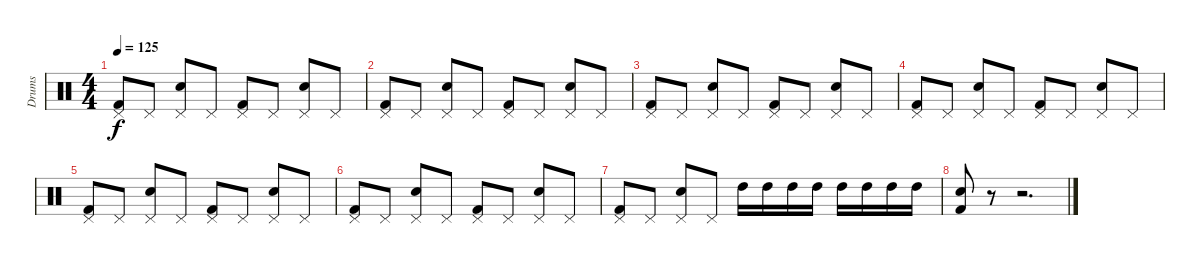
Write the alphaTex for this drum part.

\track ("Drums" "Drums") {instrument percussion}
\staff {score}
\articulation defaults
\ts (4 4)
\tempo 125
\clef neutral
\ks c
("Pedal Hi-Hat (hit)" "Kick (hit) 2").8{dy f} "Pedal Hi-Hat (hit)".8 ("Pedal Hi-Hat (hit)" "Electric Snare (hit)").8 "Pedal Hi-Hat (hit)".8 ("Pedal Hi-Hat (hit)" "Kick (hit) 2").8 "Pedal Hi-Hat (hit)".8 ("Pedal Hi-Hat (hit)" "Electric Snare (hit)").8 "Pedal Hi-Hat (hit)".8 |
("Pedal Hi-Hat (hit)" "Kick (hit) 2").8 "Pedal Hi-Hat (hit)".8 ("Pedal Hi-Hat (hit)" "Electric Snare (hit)").8 "Pedal Hi-Hat (hit)".8 ("Pedal Hi-Hat (hit)" "Kick (hit) 2").8 "Pedal Hi-Hat (hit)".8 ("Pedal Hi-Hat (hit)" "Electric Snare (hit)").8 "Pedal Hi-Hat (hit)".8 |
("Pedal Hi-Hat (hit)" "Kick (hit) 2").8 "Pedal Hi-Hat (hit)".8 ("Pedal Hi-Hat (hit)" "Electric Snare (hit)").8 "Pedal Hi-Hat (hit)".8 ("Pedal Hi-Hat (hit)" "Kick (hit) 2").8 "Pedal Hi-Hat (hit)".8 ("Pedal Hi-Hat (hit)" "Electric Snare (hit)").8 "Pedal Hi-Hat (hit)".8 |
("Pedal Hi-Hat (hit)" "Kick (hit) 2").8 "Pedal Hi-Hat (hit)".8 ("Pedal Hi-Hat (hit)" "Electric Snare (hit)").8 "Pedal Hi-Hat (hit)".8 ("Pedal Hi-Hat (hit)" "Kick (hit) 2").8 "Pedal Hi-Hat (hit)".8 ("Pedal Hi-Hat (hit)" "Electric Snare (hit)").8 "Pedal Hi-Hat (hit)".8 |
("Pedal Hi-Hat (hit)" "Kick (hit) 2").8 "Pedal Hi-Hat (hit)".8 ("Pedal Hi-Hat (hit)" "Electric Snare (hit)").8 "Pedal Hi-Hat (hit)".8 ("Pedal Hi-Hat (hit)" "Kick (hit) 2").8 "Pedal Hi-Hat (hit)".8 ("Pedal Hi-Hat (hit)" "Electric Snare (hit)").8 "Pedal Hi-Hat (hit)".8 |
("Pedal Hi-Hat (hit)" "Kick (hit) 2").8 "Pedal Hi-Hat (hit)".8 ("Pedal Hi-Hat (hit)" "Electric Snare (hit)").8 "Pedal Hi-Hat (hit)".8 ("Pedal Hi-Hat (hit)" "Kick (hit) 2").8 "Pedal Hi-Hat (hit)".8 ("Pedal Hi-Hat (hit)" "Electric Snare (hit)").8 "Pedal Hi-Hat (hit)".8 |
("Pedal Hi-Hat (hit)" "Kick (hit) 2").8 "Pedal Hi-Hat (hit)".8 ("Pedal Hi-Hat (hit)" "Electric Snare (hit)").8 "Pedal Hi-Hat (hit)".8 "High Tom (hit)".16 "High Tom (hit)".16 "High Tom (hit)".16 "High Tom (hit)".16 "High Tom (hit)".16 "High Tom (hit)".16 "High Tom (hit)".16 "High Tom (hit)".16 |
("Electric Snare (hit)" "Kick (hit) 2").8 r.8 r.2{d}
